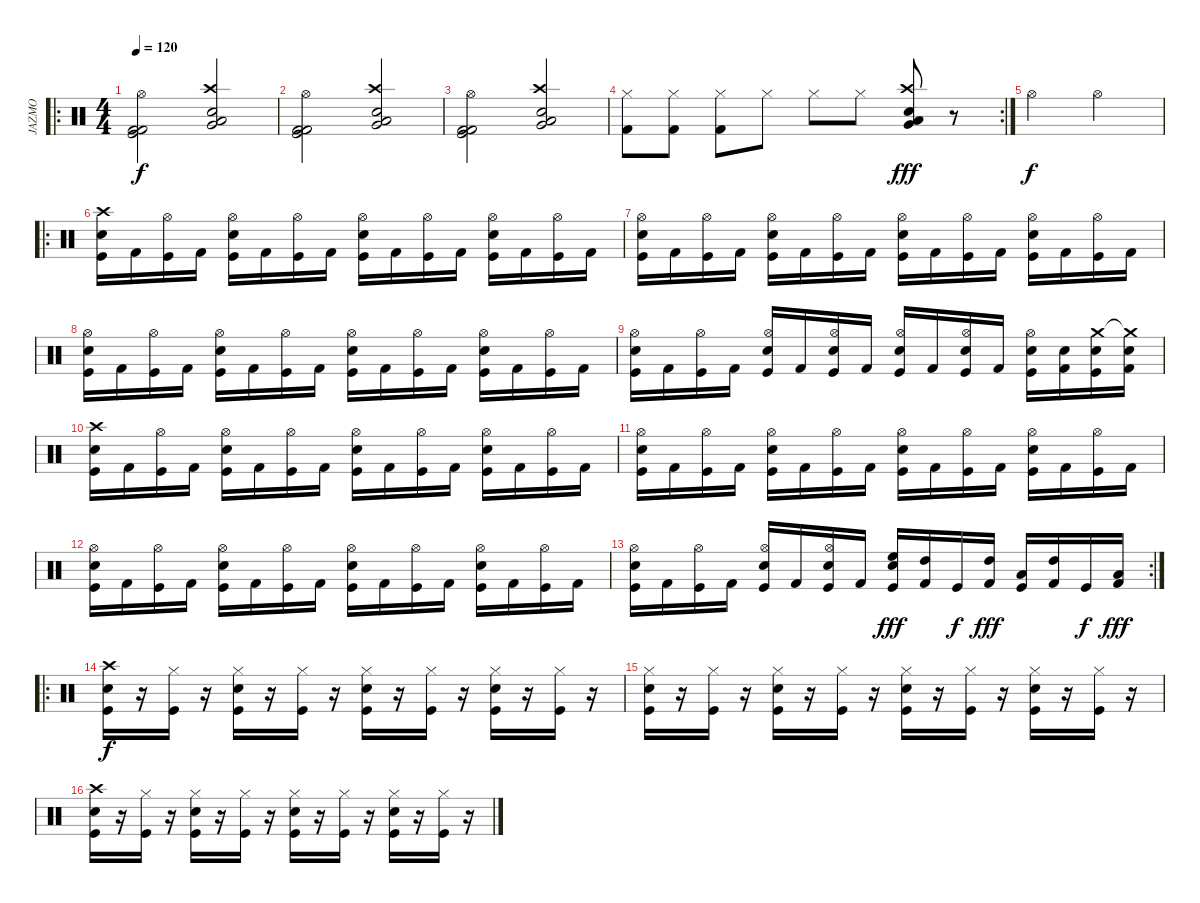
\track ("JAZMO" "JAZMO") {instrument percussion}
\staff {score}
\articulation defaults
\ro
\ts (4 4)
\tempo 120
\clef neutral
\ks c
("Kick (hit) 2" "Kick (hit)" "Hi-Hat (open)" "Kick (hit) 2").2{dy f} ("Very Low Tom (hit)" "Low Floor Tom (hit)" "Crash high (hit)" "Electric Snare (hit)").2 |
("Kick (hit) 2" "Kick (hit)" "Hi-Hat (open)" "Kick (hit) 2").2 ("Very Low Tom (hit)" "Low Floor Tom (hit)" "Crash high (hit)" "Electric Snare (hit)").2 |
("Kick (hit) 2" "Kick (hit)" "Hi-Hat (open)" "Kick (hit) 2").2 ("Very Low Tom (hit)" "Low Floor Tom (hit)" "Crash high (hit)" "Electric Snare (hit)").2 |
\rc 2
("Hi-Hat (closed)" "Kick (hit) 2").8 ("Hi-Hat (closed)" "Kick (hit) 2").8 ("Hi-Hat (closed)" "Kick (hit) 2").8 "Hi-Hat (closed)".8 "Hi-Hat (closed)".8 "Hi-Hat (closed)".8 ("Very Low Tom (hit)" "Low Floor Tom (hit)" "Crash high (hit)" "Electric Snare (hit)").8{dy fff} r.8 |
"Hi-Hat (open)".2{dy f} "Hi-Hat (open)".2 |
\ro
("Crash high (hit)" "Electric Snare (hit)" "Kick (hit)").16 "Kick (hit) 2".16 ("Hi-Hat (open)" "Kick (hit)").16 "Kick (hit) 2".16 ("Hi-Hat (open)" "Electric Snare (hit)" "Kick (hit)").16 "Kick (hit) 2".16 ("Hi-Hat (open)" "Kick (hit)").16 "Kick (hit) 2".16 ("Hi-Hat (open)" "Electric Snare (hit)" "Kick (hit)").16 "Kick (hit) 2".16 ("Hi-Hat (open)" "Kick (hit)").16 "Kick (hit) 2".16 ("Hi-Hat (open)" "Electric Snare (hit)" "Kick (hit)").16 "Kick (hit) 2".16 ("Hi-Hat (open)" "Kick (hit)").16 "Kick (hit) 2".16 |
("Hi-Hat (open)" "Electric Snare (hit)" "Kick (hit)").16 "Kick (hit) 2".16 ("Hi-Hat (open)" "Kick (hit)").16 "Kick (hit) 2".16 ("Hi-Hat (open)" "Electric Snare (hit)" "Kick (hit)").16 "Kick (hit) 2".16 ("Hi-Hat (open)" "Kick (hit)").16 "Kick (hit) 2".16 ("Hi-Hat (open)" "Electric Snare (hit)" "Kick (hit)").16 "Kick (hit) 2".16 ("Hi-Hat (open)" "Kick (hit)").16 "Kick (hit) 2".16 ("Hi-Hat (open)" "Electric Snare (hit)" "Kick (hit)").16 "Kick (hit) 2".16 ("Hi-Hat (open)" "Kick (hit)").16 "Kick (hit) 2".16 |
("Hi-Hat (open)" "Electric Snare (hit)" "Kick (hit)").16 "Kick (hit) 2".16 ("Hi-Hat (open)" "Kick (hit)").16 "Kick (hit) 2".16 ("Hi-Hat (open)" "Electric Snare (hit)" "Kick (hit)").16 "Kick (hit) 2".16 ("Hi-Hat (open)" "Kick (hit)").16 "Kick (hit) 2".16 ("Hi-Hat (open)" "Electric Snare (hit)" "Kick (hit)").16 "Kick (hit) 2".16 ("Hi-Hat (open)" "Kick (hit)").16 "Kick (hit) 2".16 ("Hi-Hat (open)" "Electric Snare (hit)" "Kick (hit)").16 "Kick (hit) 2".16 ("Hi-Hat (open)" "Kick (hit)").16 "Kick (hit) 2".16 |
("Hi-Hat (open)" "Electric Snare (hit)" "Kick (hit)").16 "Kick (hit) 2".16 ("Hi-Hat (open)" "Kick (hit)").16 "Kick (hit) 2".16 ("Hi-Hat (open)" "Electric Snare (hit)" "Kick (hit)").16 "Kick (hit) 2".16 ("Hi-Hat (open)" "Electric Snare (hit)" "Kick (hit)").16 "Kick (hit) 2".16 ("Hi-Hat (open)" "Electric Snare (hit)" "Kick (hit)").16 "Kick (hit) 2".16 ("Hi-Hat (open)" "Electric Snare (hit)" "Kick (hit)").16 "Kick (hit) 2".16 ("Hi-Hat (open)" "Electric Snare (hit)" "Kick (hit)").16 ("Electric Snare (hit)" "Kick (hit) 2").16 ("Crash medium (hit)" "Electric Snare (hit)" "Kick (hit)").16 ("Crash medium (hit)"{t} "Electric Snare (hit)" "Kick (hit) 2").16 |
("Crash high (hit)" "Electric Snare (hit)" "Kick (hit)").16 "Kick (hit) 2".16 ("Hi-Hat (open)" "Kick (hit)").16 "Kick (hit) 2".16 ("Hi-Hat (open)" "Electric Snare (hit)" "Kick (hit)").16 "Kick (hit) 2".16 ("Hi-Hat (open)" "Kick (hit)").16 "Kick (hit) 2".16 ("Hi-Hat (open)" "Electric Snare (hit)" "Kick (hit)").16 "Kick (hit) 2".16 ("Hi-Hat (open)" "Kick (hit)").16 "Kick (hit) 2".16 ("Hi-Hat (open)" "Electric Snare (hit)" "Kick (hit)").16 "Kick (hit) 2".16 ("Hi-Hat (open)" "Kick (hit)").16 "Kick (hit) 2".16 |
("Hi-Hat (open)" "Electric Snare (hit)" "Kick (hit)").16 "Kick (hit) 2".16 ("Hi-Hat (open)" "Kick (hit)").16 "Kick (hit) 2".16 ("Hi-Hat (open)" "Electric Snare (hit)" "Kick (hit)").16 "Kick (hit) 2".16 ("Hi-Hat (open)" "Kick (hit)").16 "Kick (hit) 2".16 ("Hi-Hat (open)" "Electric Snare (hit)" "Kick (hit)").16 "Kick (hit) 2".16 ("Hi-Hat (open)" "Kick (hit)").16 "Kick (hit) 2".16 ("Hi-Hat (open)" "Electric Snare (hit)" "Kick (hit)").16 "Kick (hit) 2".16 ("Hi-Hat (open)" "Kick (hit)").16 "Kick (hit) 2".16 |
("Hi-Hat (open)" "Electric Snare (hit)" "Kick (hit)").16 "Kick (hit) 2".16 ("Hi-Hat (open)" "Kick (hit)").16 "Kick (hit) 2".16 ("Hi-Hat (open)" "Electric Snare (hit)" "Kick (hit)").16 "Kick (hit) 2".16 ("Hi-Hat (open)" "Kick (hit)").16 "Kick (hit) 2".16 ("Hi-Hat (open)" "Electric Snare (hit)" "Kick (hit)").16 "Kick (hit) 2".16 ("Hi-Hat (open)" "Kick (hit)").16 "Kick (hit) 2".16 ("Hi-Hat (open)" "Electric Snare (hit)" "Kick (hit)").16 "Kick (hit) 2".16 ("Hi-Hat (open)" "Kick (hit)").16 "Kick (hit) 2".16 |
\rc 2
("Hi-Hat (open)" "Electric Snare (hit)" "Kick (hit)").16 "Kick (hit) 2".16 ("Hi-Hat (open)" "Kick (hit)").16 "Kick (hit) 2".16 ("Hi-Hat (open)" "Electric Snare (hit)" "Kick (hit)").16 "Kick (hit) 2".16 ("Hi-Hat (open)" "Electric Snare (hit)" "Kick (hit)").16 "Kick (hit) 2".16 ("High Floor Tom (hit)" "Electric Snare (hit)" "Kick (hit)").16{dy fff} ("High Tom (hit)" "Kick (hit) 2").16 "Kick (hit)".16{dy f} ("High Tom (hit)" "Kick (hit) 2").16{dy fff} ("Low Tom (hit)" "Kick (hit)").16 ("High Tom (hit)" "Kick (hit) 2").16 "Kick (hit)".16{dy f} ("Low Floor Tom (hit)" "Kick (hit) 2").16{dy fff} |
\ro
("Crash high (hit)" "Electric Snare (hit)" "Kick (hit)").16{dy f} r.16 ("Hi-Hat (closed)" "Kick (hit)").16 r.16 ("Hi-Hat (closed)" "Electric Snare (hit)" "Kick (hit)").16 r.16 ("Hi-Hat (closed)" "Kick (hit)").16 r.16 ("Hi-Hat (closed)" "Electric Snare (hit)" "Kick (hit)").16 r.16 ("Hi-Hat (closed)" "Kick (hit)").16 r.16 ("Hi-Hat (closed)" "Electric Snare (hit)" "Kick (hit)").16 r.16 ("Hi-Hat (closed)" "Kick (hit)").16 r.16 |
("Hi-Hat (closed)" "Electric Snare (hit)" "Kick (hit)").16 r.16 ("Hi-Hat (closed)" "Kick (hit)").16 r.16 ("Hi-Hat (closed)" "Electric Snare (hit)" "Kick (hit)").16 r.16 ("Hi-Hat (closed)" "Kick (hit)").16 r.16 ("Hi-Hat (closed)" "Electric Snare (hit)" "Kick (hit)").16 r.16 ("Hi-Hat (closed)" "Kick (hit)").16 r.16 ("Hi-Hat (closed)" "Electric Snare (hit)" "Kick (hit)").16 r.16 ("Hi-Hat (closed)" "Kick (hit)").16 r.16 |
("Crash high (hit)" "Electric Snare (hit)" "Kick (hit)").16 r.16 ("Hi-Hat (closed)" "Kick (hit)").16 r.16 ("Hi-Hat (closed)" "Electric Snare (hit)" "Kick (hit)").16 r.16 ("Hi-Hat (closed)" "Kick (hit)").16 r.16 ("Hi-Hat (closed)" "Electric Snare (hit)" "Kick (hit)").16 r.16 ("Hi-Hat (closed)" "Kick (hit)").16 r.16 ("Hi-Hat (closed)" "Electric Snare (hit)" "Kick (hit)").16 r.16 ("Hi-Hat (closed)" "Kick (hit)").16 r.16
